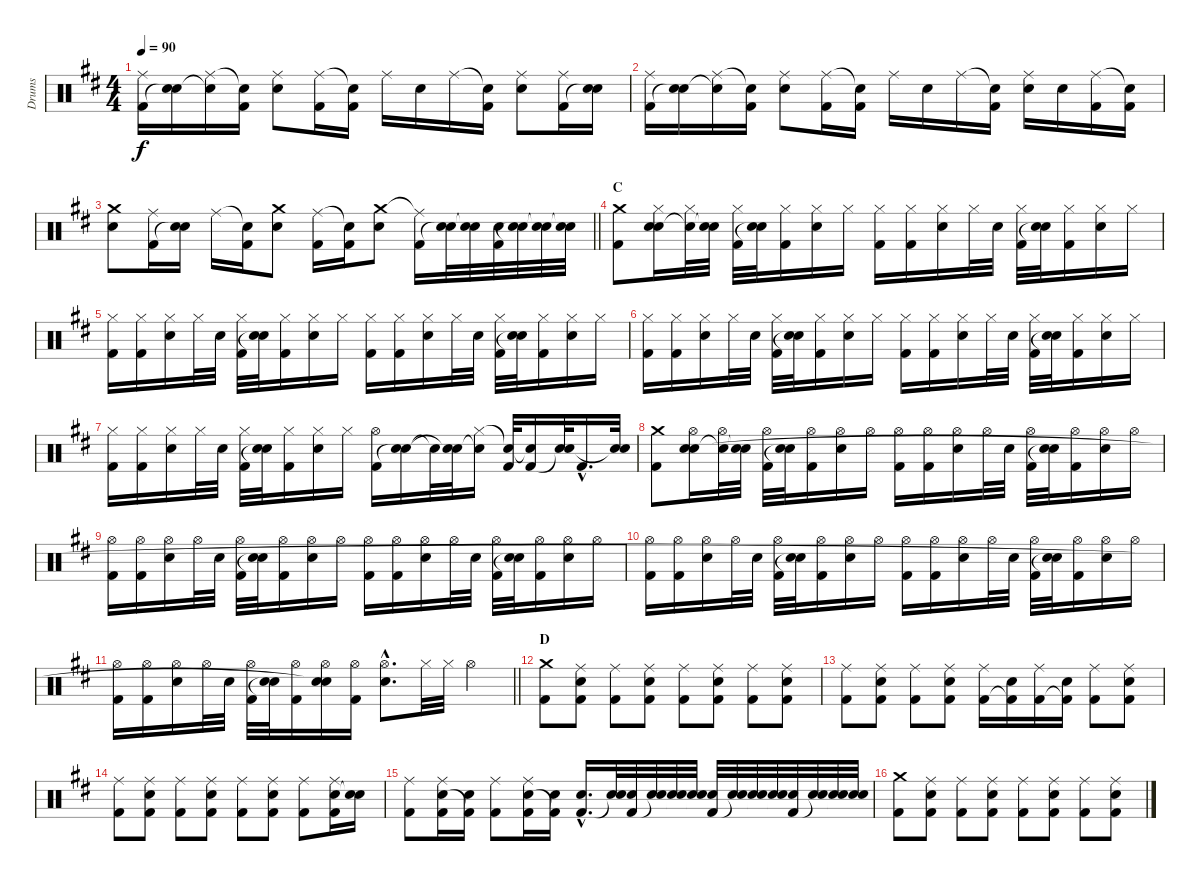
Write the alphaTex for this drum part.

\track ("Drums" "Drums") {instrument percussion}
\staff {score}
\articulation defaults
\ts (4 4)
\tempo 90
\clef neutral
\ks d
("Ride (middle)" "Kick (hit) 2").16{dy f} ("Electric Snare (hit)" "Snare (hit)"{t}).16 ("Ride (middle)" "Snare (hit)"{t}).16 ("Snare (hit)"{t} "Kick (hit) 2").16 ("Ride (middle)" "Electric Snare (hit)").8 ("Ride (middle)" "Kick (hit) 2").16 ("Snare (hit)"{t} "Kick (hit) 2").16 "Ride (middle)".16 "Electric Snare (hit)".16 "Ride (middle)".16 ("Snare (hit)"{t} "Kick (hit) 2").16 ("Ride (middle)" "Electric Snare (hit)").8 ("Ride (middle)" "Kick (hit) 2").16 ("Electric Snare (hit)" "Snare (hit)"{t}).16 |
("Ride (middle)" "Kick (hit) 2").16 ("Electric Snare (hit)" "Snare (hit)"{t}).16 ("Ride (middle)" "Snare (hit)"{t}).16 ("Snare (hit)"{t} "Kick (hit) 2").16 ("Ride (middle)" "Electric Snare (hit)").8 ("Ride (middle)" "Kick (hit) 2").16 ("Snare (hit)"{t} "Kick (hit) 2").16 "Ride (middle)".16 "Electric Snare (hit)".16 "Ride (middle)".16 ("Snare (hit)"{t} "Kick (hit) 2").16 ("Ride (middle)" "Electric Snare (hit)").16 "Electric Snare (hit)".16 ("Ride (middle)" "Kick (hit) 2").16 ("Snare (hit)"{t} "Kick (hit) 2").16 |
\barLineRight lightlight
("Crash medium (hit)" "Electric Snare (hit)").8 ("Ride (middle)" "Kick (hit) 2").16 ("Electric Snare (hit)" "Snare (hit)"{t}).16 "Ride (middle)".16 ("Snare (hit)"{t} "Kick (hit) 2").16 ("Crash medium (hit)" "Electric Snare (hit)").8 ("Ride (middle)" "Kick (hit) 2").16 ("Snare (hit)"{t} "Kick (hit) 2").16 ("Crash medium (hit)" "Electric Snare (hit)").8 ("Ride (middle)"{t} "Kick (hit) 2").16 ("Electric Snare (hit)" "Snare (hit)"{t}).32 ("Electric Snare (hit)" "Snare (hit)"{t}).32 ("Electric Snare (hit)" "Kick (hit) 2").32 ("Electric Snare (hit)" "Snare (hit)"{t}).32 ("Electric Snare (hit)" "Snare (hit)"{t}).32 ("Electric Snare (hit)" "Snare (hit)"{t}).32 |
\section ("" "C")
("Crash medium (hit)" "Kick (hit) 2").8 ("Hi-Hat (closed)" "Electric Snare (hit)" "Snare (hit)").16 ("Hi-Hat (closed)" "Snare (hit)"{t}).32 ("Electric Snare (hit)" "Snare (hit)"{t}).32 ("Hi-Hat (closed)" "Kick (hit) 2").32 ("Electric Snare (hit)" "Snare (hit)"{t}).32 ("Hi-Hat (closed)" "Kick (hit) 2").16 ("Hi-Hat (closed)" "Electric Snare (hit)").16 "Hi-Hat (closed)".16 ("Hi-Hat (closed)" "Kick (hit) 2").16 ("Hi-Hat (closed)" "Kick (hit) 2").16 ("Hi-Hat (closed)" "Electric Snare (hit)").16 "Hi-Hat (closed)".32 "Electric Snare (hit)".32 ("Hi-Hat (closed)" "Kick (hit) 2").32 ("Electric Snare (hit)" "Snare (hit)"{t}).32 ("Hi-Hat (closed)" "Kick (hit) 2").16 ("Hi-Hat (closed)" "Electric Snare (hit)").16 "Hi-Hat (closed)".16 |
("Hi-Hat (closed)" "Kick (hit) 2").16 ("Hi-Hat (closed)" "Kick (hit) 2").16 ("Hi-Hat (closed)" "Electric Snare (hit)").16 "Hi-Hat (closed)".32 "Electric Snare (hit)".32 ("Hi-Hat (closed)" "Kick (hit) 2").32 ("Electric Snare (hit)" "Snare (hit)"{t}).32 ("Hi-Hat (closed)" "Kick (hit) 2").16 ("Hi-Hat (closed)" "Electric Snare (hit)").16 "Hi-Hat (closed)".16 ("Hi-Hat (closed)" "Kick (hit) 2").16 ("Hi-Hat (closed)" "Kick (hit) 2").16 ("Hi-Hat (closed)" "Electric Snare (hit)").16 "Hi-Hat (closed)".32 "Electric Snare (hit)".32 ("Hi-Hat (closed)" "Kick (hit) 2").32 ("Electric Snare (hit)" "Snare (hit)"{t}).32 ("Hi-Hat (closed)" "Kick (hit) 2").16 ("Hi-Hat (closed)" "Electric Snare (hit)").16 "Hi-Hat (closed)".16 |
("Hi-Hat (closed)" "Kick (hit) 2").16 ("Hi-Hat (closed)" "Kick (hit) 2").16 ("Hi-Hat (closed)" "Electric Snare (hit)").16 "Hi-Hat (closed)".32 "Electric Snare (hit)".32 ("Hi-Hat (closed)" "Kick (hit) 2").32 ("Electric Snare (hit)" "Snare (hit)"{t}).32 ("Hi-Hat (closed)" "Kick (hit) 2").16 ("Hi-Hat (closed)" "Electric Snare (hit)").16 "Hi-Hat (closed)".16 ("Hi-Hat (closed)" "Kick (hit) 2").16 ("Hi-Hat (closed)" "Kick (hit) 2").16 ("Hi-Hat (closed)" "Electric Snare (hit)").16 "Hi-Hat (closed)".32 "Electric Snare (hit)".32 ("Hi-Hat (closed)" "Kick (hit) 2").32 ("Electric Snare (hit)" "Snare (hit)"{t}).32 ("Hi-Hat (closed)" "Kick (hit) 2").16 ("Hi-Hat (closed)" "Electric Snare (hit)").16 "Hi-Hat (closed)".16 |
("Hi-Hat (closed)" "Kick (hit) 2").16 ("Hi-Hat (closed)" "Kick (hit) 2").16 ("Hi-Hat (closed)" "Electric Snare (hit)").16 "Hi-Hat (closed)".32 "Electric Snare (hit)".32 ("Hi-Hat (closed)" "Kick (hit) 2").32 ("Electric Snare (hit)" "Snare (hit)"{t}).32 ("Hi-Hat (closed)" "Kick (hit) 2").16 ("Hi-Hat (closed)" "Electric Snare (hit)").16 "Hi-Hat (closed)".16 ("Hi-Hat (open)" "Kick (hit) 2").16 ("Electric Snare (hit)" "Snare (hit)"{t}).16 "Snare (hit)"{t}.32 ("Electric Snare (hit)" "Snare (hit)"{t}).32 ("Hi-Hat (closed)" "Snare (hit)"{t}).16 ("Snare (hit)"{t} "Kick (hit) 2").32 ("Snare (hit)"{t} "Kick (hit) 2").16 ("Electric Snare (hit)" "Snare (hit)"{t}).32 "Kick (hit) 2"{hac}.16{d} ("Electric Snare (hit)" "Snare (hit)"{t}).32 |
("Crash medium (hit)" "Kick (hit) 2").8 ("Hi-Hat (open)" "Electric Snare (hit)" "Snare (hit)").16 ("Hi-Hat (open)" "Snare (hit)"{t}).32 ("Electric Snare (hit)" "Snare (hit)"{t}).32 ("Hi-Hat (open)" "Kick (hit) 2").32 ("Electric Snare (hit)" "Snare (hit)"{t}).32 ("Hi-Hat (open)" "Kick (hit) 2").16 ("Hi-Hat (open)" "Electric Snare (hit)").16 "Hi-Hat (open)".16 ("Hi-Hat (open)" "Kick (hit) 2").16 ("Hi-Hat (open)" "Kick (hit) 2").16 ("Hi-Hat (open)" "Electric Snare (hit)").16 "Hi-Hat (open)".32 "Electric Snare (hit)".32 ("Hi-Hat (open)" "Kick (hit) 2").32 ("Electric Snare (hit)" "Snare (hit)"{t}).32 ("Hi-Hat (open)" "Kick (hit) 2").16 ("Hi-Hat (open)" "Electric Snare (hit)").16 "Hi-Hat (open)".16 |
("Hi-Hat (open)" "Kick (hit) 2").16 ("Hi-Hat (open)" "Kick (hit) 2").16 ("Hi-Hat (open)" "Electric Snare (hit)").16 "Hi-Hat (open)".32 "Electric Snare (hit)".32 ("Hi-Hat (open)" "Kick (hit) 2").32 ("Electric Snare (hit)" "Snare (hit)"{t}).32 ("Hi-Hat (open)" "Kick (hit) 2").16 ("Hi-Hat (open)" "Electric Snare (hit)").16 "Hi-Hat (open)".16 ("Hi-Hat (open)" "Kick (hit) 2").16 ("Hi-Hat (open)" "Kick (hit) 2").16 ("Hi-Hat (open)" "Electric Snare (hit)").16 "Hi-Hat (open)".32 "Electric Snare (hit)".32 ("Hi-Hat (open)" "Kick (hit) 2").32 ("Electric Snare (hit)" "Snare (hit)"{t}).32 ("Hi-Hat (open)" "Kick (hit) 2").16 ("Hi-Hat (open)" "Electric Snare (hit)").16 "Hi-Hat (open)".16 |
("Hi-Hat (open)" "Kick (hit) 2").16 ("Hi-Hat (open)" "Kick (hit) 2").16 ("Hi-Hat (open)" "Electric Snare (hit)").16 "Hi-Hat (open)".32 "Electric Snare (hit)".32 ("Hi-Hat (open)" "Kick (hit) 2").32 ("Electric Snare (hit)" "Snare (hit)"{t}).32 ("Hi-Hat (open)" "Kick (hit) 2").16 ("Hi-Hat (open)" "Electric Snare (hit)").16 "Hi-Hat (open)".16 ("Hi-Hat (open)" "Kick (hit) 2").16 ("Hi-Hat (open)" "Kick (hit) 2").16 ("Hi-Hat (open)" "Electric Snare (hit)").16 "Hi-Hat (open)".32 "Electric Snare (hit)".32 ("Hi-Hat (open)" "Kick (hit) 2").32 ("Electric Snare (hit)" "Snare (hit)"{t}).32 ("Hi-Hat (open)" "Kick (hit) 2").16 ("Hi-Hat (open)" "Electric Snare (hit)").16 "Hi-Hat (open)".16 |
\barLineRight lightlight
("Hi-Hat (open)" "Kick (hit) 2").16 ("Hi-Hat (open)" "Kick (hit) 2").16 ("Hi-Hat (open)" "Electric Snare (hit)").16 "Hi-Hat (open)".32 "Electric Snare (hit)".32 ("Hi-Hat (open)" "Kick (hit) 2").32 ("Electric Snare (hit)" "Snare (hit)"{t}).32 ("Hi-Hat (open)" "Kick (hit) 2").16 ("Hi-Hat (open)" "Electric Snare (hit)" "Snare (hit)"{t}).16 ("Hi-Hat (open)" "Kick (hit) 2").16 ("Hi-Hat (open)"{hac} "Electric Snare (hit)"{hac}).8{d} "Hi-Hat (closed)".32 "Hi-Hat (closed)".32 "Hi-Hat (open)".4 |
\section ("" "D")
("Crash medium (hit)" "Kick (hit) 2").8 ("Ride (middle)" "Electric Snare (hit)" "Kick (hit) 2").8 ("Ride (middle)" "Kick (hit) 2").8 ("Ride (middle)" "Electric Snare (hit)" "Kick (hit) 2").8 ("Ride (middle)" "Kick (hit) 2").8 ("Ride (middle)" "Electric Snare (hit)" "Kick (hit) 2").8 ("Ride (middle)" "Kick (hit) 2").8 ("Ride (middle)" "Electric Snare (hit)" "Kick (hit) 2").8 |
("Ride (middle)" "Kick (hit) 2").8 ("Ride (middle)" "Electric Snare (hit)" "Kick (hit) 2").8 ("Ride (middle)" "Kick (hit) 2").8 ("Ride (middle)" "Electric Snare (hit)" "Kick (hit) 2").8 ("Ride (middle)" "Kick (hit) 2").16 ("Electric Snare (hit)" "Kick (hit) 2"{t}).16 ("Ride (middle)" "Kick (hit) 2").16 ("Electric Snare (hit)" "Kick (hit) 2"{t}).16 ("Ride (middle)" "Kick (hit) 2").8 ("Ride (middle)" "Electric Snare (hit)" "Kick (hit) 2").8 |
("Ride (middle)" "Kick (hit) 2").8 ("Ride (middle)" "Electric Snare (hit)" "Kick (hit) 2").8 ("Ride (middle)" "Kick (hit) 2").8 ("Ride (middle)" "Electric Snare (hit)" "Kick (hit) 2").8 ("Ride (middle)" "Kick (hit) 2").8 ("Ride (middle)" "Electric Snare (hit)" "Kick (hit) 2").8 ("Ride (middle)" "Kick (hit) 2").8 ("Ride (middle)" "Electric Snare (hit)" "Kick (hit) 2").16 ("Electric Snare (hit)" "Snare (hit)"{t}).16 |
("Ride (middle)" "Kick (hit) 2").8 ("Ride (middle)" "Electric Snare (hit)" "Kick (hit) 2").16 ("Electric Snare (hit)" "Kick (hit) 2"{t}).16 ("Ride (middle)" "Kick (hit) 2").8 ("Ride (middle)" "Electric Snare (hit)" "Kick (hit) 2").16 ("Electric Snare (hit)" "Kick (hit) 2"{t}).16 ("Electric Snare (hit)"{hac} "Kick (hit) 2"{hac}).16{d} ("Electric Snare (hit)" "Snare (hit)"{t}).32 ("Electric Snare (hit)" "Kick (hit) 2").32 ("Electric Snare (hit)" "Snare (hit)"{t}).32 ("Electric Snare (hit)" "Snare (hit)"{t}).32 ("Electric Snare (hit)" "Snare (hit)"{t}).32 ("Electric Snare (hit)" "Kick (hit) 2").32 ("Electric Snare (hit)" "Snare (hit)"{t}).32 ("Electric Snare (hit)" "Snare (hit)"{t}).32 ("Electric Snare (hit)" "Snare (hit)"{t}).32 ("Electric Snare (hit)" "Kick (hit) 2").32 ("Electric Snare (hit)" "Snare (hit)"{t}).32 ("Electric Snare (hit)" "Snare (hit)"{t}).32 ("Electric Snare (hit)" "Snare (hit)"{t}).32 |
("Crash medium (hit)" "Kick (hit) 2").8 ("Ride (middle)" "Electric Snare (hit)" "Kick (hit) 2").8 ("Ride (middle)" "Kick (hit) 2").8 ("Ride (middle)" "Electric Snare (hit)" "Kick (hit) 2").8 ("Ride (middle)" "Kick (hit) 2").8 ("Ride (middle)" "Electric Snare (hit)" "Kick (hit) 2").8 ("Ride (middle)" "Kick (hit) 2").8 ("Ride (middle)" "Electric Snare (hit)" "Kick (hit) 2").8
